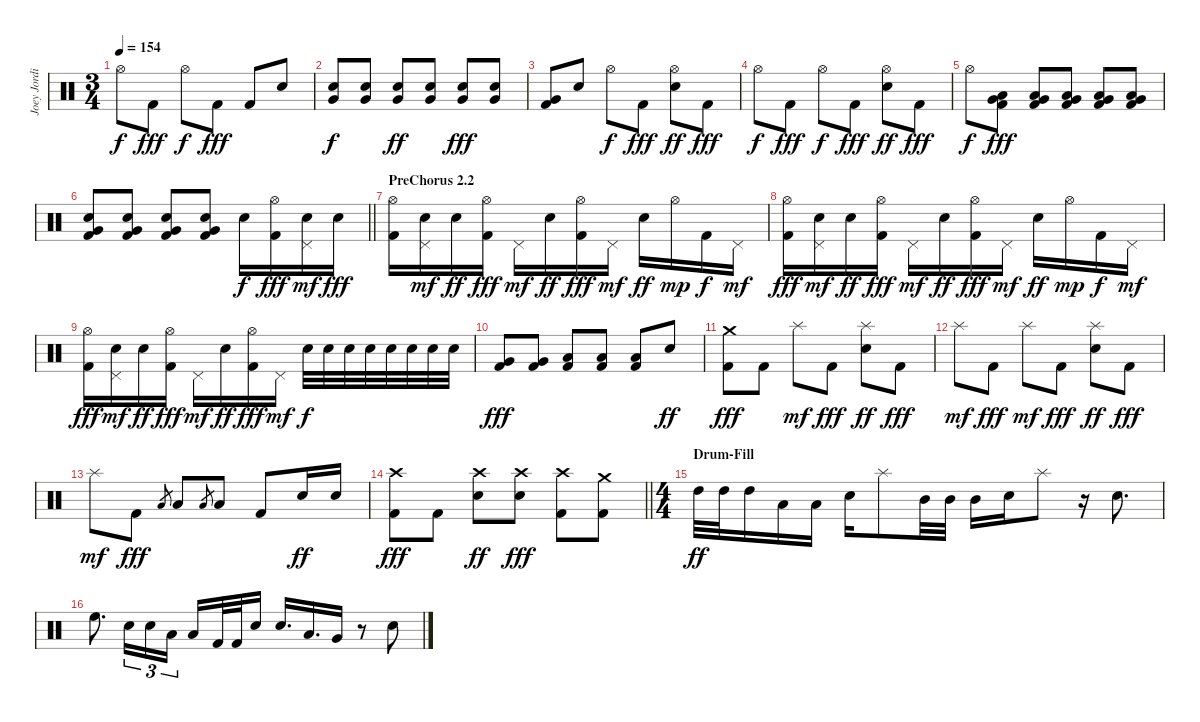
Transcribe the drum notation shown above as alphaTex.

\track ("Joey Jordison" "Joey Jordi") {instrument percussion}
\staff {score}
\articulation defaults
\ts (3 4)
\tempo 154
\clef neutral
\ks c "Hi-Hat (open)".8{dy f} "Kick (hit) 2".8{dy fff} "Hi-Hat (open)".8{dy f} "Kick (hit) 2".8{dy fff} "Kick (hit) 2".8 "Electric Snare (hit)".8
|
("Electric Snare (hit)" "Very Low Tom (hit)").8{dy f} ("Electric Snare (hit)" "Very Low Tom (hit)").8 ("Electric Snare (hit)" "Very Low Tom (hit)").8{dy ff} ("Electric Snare (hit)" "Very Low Tom (hit)").8 ("Electric Snare (hit)" "Very Low Tom (hit)").8{dy fff} ("Electric Snare (hit)" "Very Low Tom (hit)").8 |
("Very Low Tom (hit)" "Kick (hit) 2").8 "Electric Snare (hit)".8 "Hi-Hat (open)".8{dy f} "Kick (hit) 2".8{dy fff} ("Hi-Hat (open)" "Electric Snare (hit)").8{dy ff} "Kick (hit) 2".8{dy fff} |
"Hi-Hat (open)".8{dy f} "Kick (hit) 2".8{dy fff} "Hi-Hat (open)".8{dy f} "Kick (hit) 2".8{dy fff} ("Hi-Hat (open)" "Electric Snare (hit)").8{dy ff} "Kick (hit) 2".8{dy fff} |
"Hi-Hat (open)".8{dy f} ("Low Tom (hit)" "Very Low Tom (hit)" "Kick (hit) 2").8{dy fff} ("Low Tom (hit)" "Very Low Tom (hit)" "Kick (hit) 2").8 ("Low Tom (hit)" "Very Low Tom (hit)" "Kick (hit) 2").8 ("Low Tom (hit)" "Very Low Tom (hit)" "Kick (hit) 2").8 ("Low Tom (hit)" "Very Low Tom (hit)" "Kick (hit) 2").8 |
\barLineRight lightlight
("Electric Snare (hit)" "Very Low Tom (hit)" "Kick (hit) 2").8 ("Electric Snare (hit)" "Very Low Tom (hit)" "Kick (hit) 2").8 ("Electric Snare (hit)" "Very Low Tom (hit)" "Kick (hit) 2").8 ("Electric Snare (hit)" "Very Low Tom (hit)" "Kick (hit) 2").8 "Electric Snare (hit)".16{dy f} ("Hi-Hat (open)" "Kick (hit) 2").16{dy fff} ("Electric Snare (hit)" "Pedal Hi-Hat (hit)").16{dy mf} "Electric Snare (hit)".16{dy fff} |
\section ("" "PreChorus 2.2")
("Hi-Hat (open)" "Kick (hit) 2").16 ("Electric Snare (hit)" "Pedal Hi-Hat (hit)").16{dy mf} "Electric Snare (hit)".16{dy ff} ("Hi-Hat (open)" "Kick (hit) 2").16{dy fff} "Pedal Hi-Hat (hit)".16{dy mf} "Electric Snare (hit)".16{dy ff} ("Hi-Hat (open)" "Kick (hit) 2").16{dy fff} "Pedal Hi-Hat (hit)".16{dy mf} "Electric Snare (hit)".16{dy ff} "Hi-Hat (open)".16{dy mp} "Kick (hit) 2".16{dy f} "Pedal Hi-Hat (hit)".16{dy mf} |
("Hi-Hat (open)" "Kick (hit) 2").16{dy fff} ("Electric Snare (hit)" "Pedal Hi-Hat (hit)").16{dy mf} "Electric Snare (hit)".16{dy ff} ("Hi-Hat (open)" "Kick (hit) 2").16{dy fff} "Pedal Hi-Hat (hit)".16{dy mf} "Electric Snare (hit)".16{dy ff} ("Hi-Hat (open)" "Kick (hit) 2").16{dy fff} "Pedal Hi-Hat (hit)".16{dy mf} "Electric Snare (hit)".16{dy ff} "Hi-Hat (open)".16{dy mp} "Kick (hit) 2".16{dy f} "Pedal Hi-Hat (hit)".16{dy mf} |
("Hi-Hat (open)" "Kick (hit) 2").16{dy fff} ("Electric Snare (hit)" "Pedal Hi-Hat (hit)").16{dy mf} "Electric Snare (hit)".16{dy ff} ("Hi-Hat (open)" "Kick (hit) 2").16{dy fff} "Pedal Hi-Hat (hit)".16{dy mf} "Electric Snare (hit)".16{dy ff} ("Hi-Hat (open)" "Kick (hit) 2").16{dy fff} "Pedal Hi-Hat (hit)".16{dy mf} "Electric Snare (hit)".32{dy f} "Electric Snare (hit)".32 "Electric Snare (hit)".32 "Electric Snare (hit)".32 "Electric Snare (hit)".32 "Electric Snare (hit)".32 "Electric Snare (hit)".32 "Electric Snare (hit)".32 |
("Very Low Tom (hit)" "Kick (hit) 2").8{dy fff} ("Very Low Tom (hit)" "Kick (hit) 2").8 ("Low Tom (hit)" "Kick (hit) 2").8 ("Low Tom (hit)" "Kick (hit) 2").8 ("Low Floor Tom (hit)" "Kick (hit) 2").8 "Electric Snare (hit)".8{dy ff} |
("Crash medium (hit)" "Kick (hit) 2").8{dy fff} "Kick (hit) 2".8 "Splash (hit)".8{dy mf} "Kick (hit) 2".8{dy fff} ("Splash (hit)" "Electric Snare (hit)").8{dy ff} "Kick (hit) 2".8{dy fff} |
"Splash (hit)".8{dy mf} "Kick (hit) 2".8{dy fff} "Splash (hit)".8{dy mf} "Kick (hit) 2".8{dy fff} ("Splash (hit)" "Electric Snare (hit)").8{dy ff} "Kick (hit) 2".8{dy fff} |
"Splash (hit)".8{dy mf} "Kick (hit) 2".8{dy fff} "Low Tom (hit)".8{gr} "Low Tom (hit)".8 "Low Floor Tom (hit)".8{gr} "Low Floor Tom (hit)".8 "Kick (hit) 2".8 "Electric Snare (hit)".16{dy ff} "Electric Snare (hit)".16 |
\barLineRight lightlight
("Crash high (hit)" "Kick (hit) 2").8{dy fff} "Kick (hit) 2".8 ("Crash high (hit)" "Electric Snare (hit)").8{dy ff} ("Crash high (hit)" "Electric Snare (hit)").8{dy fff} ("Crash high (hit)" "Kick (hit) 2").8 ("Crash medium (hit)" "Kick (hit) 2").8 |
\ts (4 4)
\section ("" "Drum-Fill")
"High Tom (hit)".32{dy ff} "High Tom (hit)".32 "High Tom (hit)".16 "Low Tom (hit)".16 "Low Tom (hit)".16 "Electric Snare (hit)".16 "Splash (hit)".8 "Mid Tom (hit)".32 "Mid Tom (hit)".32 "Mid Tom (hit)".16 "Electric Snare (hit)".16 "Splash (hit)".8 r.16 "Electric Snare (hit)".8{d} |
"High Floor Tom (hit)".8{d} "Electric Snare (hit)".16{tu (3 2)} "Electric Snare (hit)".16{tu (3 2)} "Low Tom (hit)".16{tu (3 2) beam splitsecondary} "Low Tom (hit)".16 "Kick (hit) 2".32 "Kick (hit) 2".32 "Electric Snare (hit)".16 "Electric Snare (hit)".16{d} "Low Tom (hit)".16{d} "Very Low Tom (hit)".16 r.8 "Electric Snare (hit)".8
